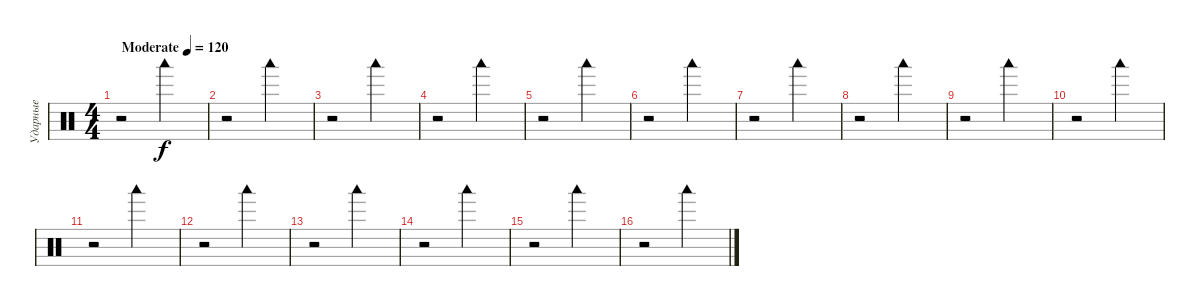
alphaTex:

\track ("Ударные" "Ударные") {instrument percussion}
\staff {score}
\articulation defaults
\ts (4 4)
\tempo (120 "Moderate")
\clef neutral
\ks c
r.2{dy f} "Woodblock low (hit)".2 |
r.2 "Woodblock low (hit)".2 |
r.2 "Woodblock low (hit)".2 |
r.2 "Woodblock low (hit)".2 |
r.2 "Woodblock low (hit)".2 |
r.2 "Woodblock low (hit)".2 |
r.2 "Woodblock low (hit)".2 |
r.2 "Woodblock low (hit)".2 |
r.2 "Woodblock low (hit)".2 |
r.2 "Woodblock low (hit)".2 |
r.2 "Woodblock low (hit)".2 |
r.2 "Woodblock low (hit)".2 |
r.2 "Woodblock low (hit)".2 |
r.2 "Woodblock low (hit)".2 |
r.2 "Woodblock low (hit)".2 |
r.2 "Woodblock low (hit)".2
